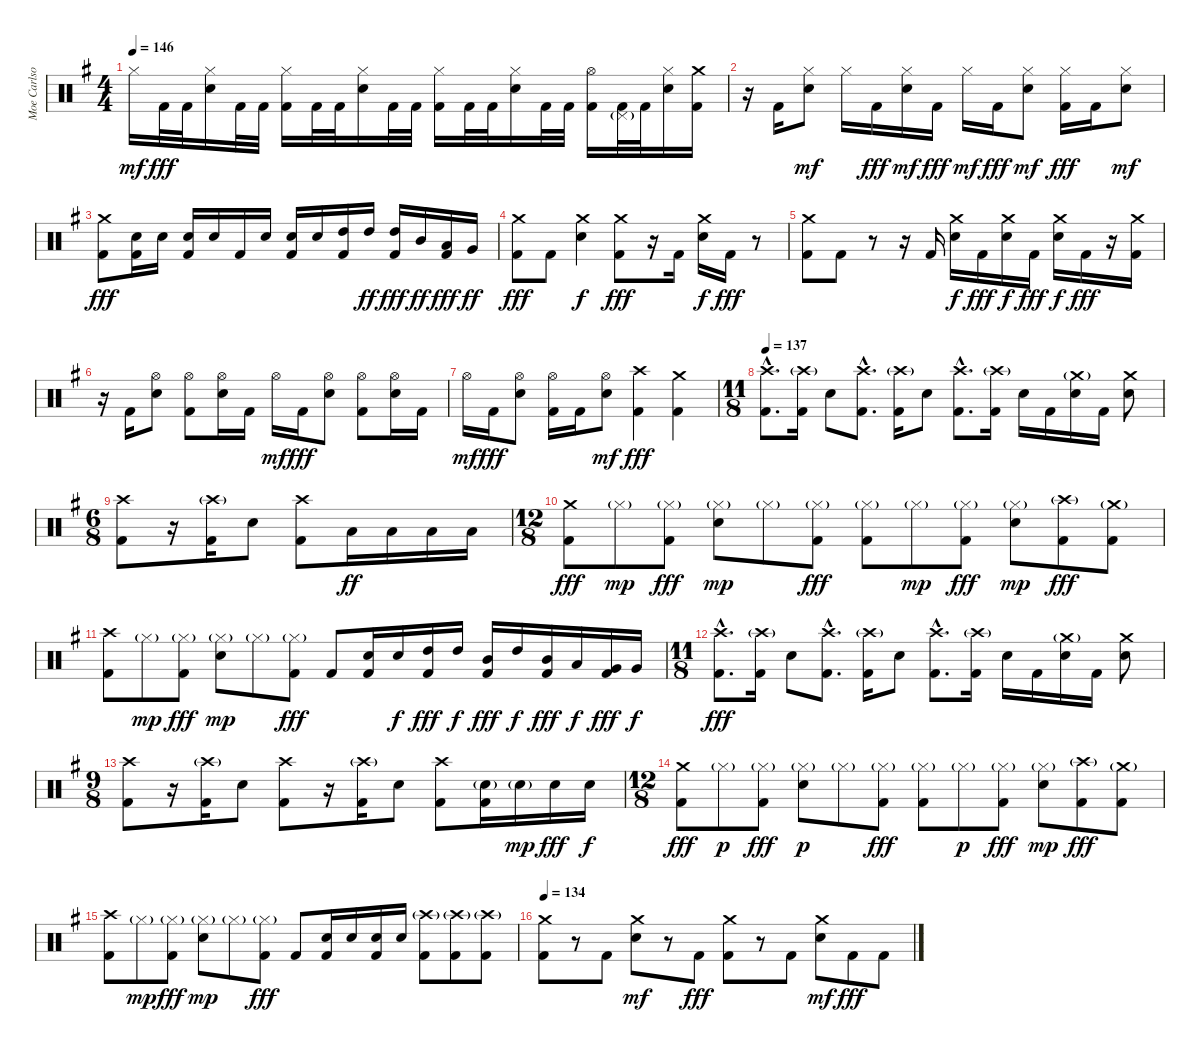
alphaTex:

\track ("Moe Carlson" "Moe Carlso") {instrument percussion}
\staff {score}
\articulation defaults
\ts (4 4)
\tempo 146
\clef neutral
\ks g "Hi-Hat (closed)".16{dy mf} "Kick (hit) 2".32{dy fff} "Kick (hit) 2".32
("Hi-Hat (closed)" "Electric Snare (hit)").16 "Kick (hit) 2".32 "Kick (hit) 2".32 ("Hi-Hat (closed)" "Kick (hit) 2").16 "Kick (hit) 2".32 "Kick (hit) 2".32 ("Hi-Hat (closed)" "Electric Snare (hit)").16 "Kick (hit) 2".32 "Kick (hit) 2".32 ("Hi-Hat (closed)" "Kick (hit) 2").16 "Kick (hit) 2".32 "Kick (hit) 2".32 ("Hi-Hat (closed)" "Electric Snare (hit)").16 "Kick (hit) 2".32 "Kick (hit) 2".32 ("Hi-Hat (open)" "Kick (hit) 2").16 ("Pedal Hi-Hat (hit)"{g} "Kick (hit) 2").32 "Kick (hit) 2".32 ("Hi-Hat (closed)" "Electric Snare (hit)").16 ("Crash medium (hit)" "Kick (hit) 2").16 |
r.16 "Kick (hit) 2".16 ("Hi-Hat (closed)" "Electric Snare (hit)").8{dy mf} "Hi-Hat (closed)".16 "Kick (hit) 2".16{dy fff} ("Hi-Hat (closed)" "Electric Snare (hit)").16{dy mf} "Kick (hit) 2".16{dy fff} "Hi-Hat (closed)".16{dy mf} "Kick (hit) 2".16{dy fff} ("Hi-Hat (closed)" "Electric Snare (hit)").8{dy mf} ("Hi-Hat (closed)" "Kick (hit) 2").16{dy fff} "Kick (hit) 2".16 ("Hi-Hat (closed)" "Electric Snare (hit)").8{dy mf} |
("Crash medium (hit)" "Kick (hit) 2").8{dy fff} ("Electric Snare (hit)" "Kick (hit) 2").16 "Electric Snare (hit)".16 ("Electric Snare (hit)" "Kick (hit) 2").16 "Electric Snare (hit)".16 "Kick (hit) 2".16 "Electric Snare (hit)".16 ("Electric Snare (hit)" "Kick (hit) 2").16 "Electric Snare (hit)".16 ("High Tom (hit)" "Kick (hit) 2").16 "High Tom (hit)".16{dy ff} ("High Tom (hit)" "Kick (hit) 2").16{dy fff} "Mid Tom (hit)".16{dy ff} ("Low Tom (hit)" "Kick (hit) 2").16{dy fff} "Very Low Tom (hit)".16{dy ff} |
("Crash medium (hit)" "Kick (hit) 2").8{dy fff} "Kick (hit) 2".8 ("Crash medium (hit)" "Electric Snare (hit)").4{dy f} ("Crash medium (hit)" "Kick (hit) 2").8{dy fff} r.16 "Kick (hit) 2".16 ("Crash medium (hit)" "Electric Snare (hit)").16{dy f} "Kick (hit) 2".16{dy fff} r.8 |
("Crash medium (hit)" "Kick (hit) 2").8 "Kick (hit) 2".8 r.8 r.16 "Kick (hit) 2".16 ("Crash medium (hit)" "Electric Snare (hit)").16{dy f} "Kick (hit) 2".16{dy fff} ("Crash medium (hit)" "Electric Snare (hit)").16{dy f} "Kick (hit) 2".16{dy fff} ("Crash medium (hit)" "Electric Snare (hit)").16{dy f} "Kick (hit) 2".16{dy fff} r.16 ("Crash medium (hit)" "Kick (hit) 2").16 |
r.16 "Kick (hit) 2".16 ("Hi-Hat (open)" "Electric Snare (hit)").8 ("Hi-Hat (open)" "Kick (hit) 2").8 ("Hi-Hat (open)" "Electric Snare (hit)").16 "Kick (hit) 2".16 "Hi-Hat (open)".16{dy mf} "Kick (hit) 2".16{dy fff} ("Hi-Hat (open)" "Electric Snare (hit)").8 ("Hi-Hat (open)" "Kick (hit) 2").8 ("Hi-Hat (open)" "Electric Snare (hit)").16 "Kick (hit) 2".16 |
"Hi-Hat (open)".16{dy mf} "Kick (hit) 2".16{dy fff} ("Hi-Hat (open)" "Electric Snare (hit)").8 ("Hi-Hat (open)" "Kick (hit) 2").16 "Kick (hit) 2".16 ("Hi-Hat (open)" "Electric Snare (hit)").8{dy mf} ("Crash high (hit)" "Kick (hit) 2").4{dy fff} ("Crash medium (hit)" "Kick (hit) 2").4 |
\ts (11 8)
\tempo 137
("Crash high (hit)"{hac} "Kick (hit) 2"{hac}).8{d} ("Crash high (hit)"{g} "Kick (hit) 2").16 "Electric Snare (hit)".8 ("Crash high (hit)"{hac} "Kick (hit) 2"{hac}).8{d} ("Crash high (hit)"{g} "Kick (hit) 2").16 "Electric Snare (hit)".8 ("Crash high (hit)"{hac} "Kick (hit) 2"{hac}).8{d} ("Crash high (hit)"{g} "Kick (hit) 2").16 "Electric Snare (hit)".16 "Kick (hit) 2".16 ("Crash medium (hit)"{g} "Electric Snare (hit)").16 "Kick (hit) 2".16 ("Crash medium (hit)" "Electric Snare (hit)").8 |
\ts (6 8)
("Crash high (hit)" "Kick (hit) 2").8 r.16 ("Crash high (hit)"{g} "Kick (hit) 2").16 "Electric Snare (hit)".8 ("Crash high (hit)" "Kick (hit) 2").8 "Low Floor Tom (hit)".16{dy ff} "Low Floor Tom (hit)".16 "Low Floor Tom (hit)".16 "Low Floor Tom (hit)".16 |
\ts (12 8)
("Crash medium (hit)" "Kick (hit) 2").8{dy fff} "Hi-Hat (closed)"{g}.8{dy mp} ("Hi-Hat (closed)"{g} "Kick (hit) 2").8{dy fff} ("Hi-Hat (closed)"{g} "Electric Snare (hit)").8{dy mp} "Hi-Hat (closed)"{g}.8 ("Hi-Hat (closed)"{g} "Kick (hit) 2").8{dy fff} ("Hi-Hat (closed)"{g} "Kick (hit) 2").8 "Hi-Hat (closed)"{g}.8{dy mp} ("Hi-Hat (closed)"{g} "Kick (hit) 2").8{dy fff} ("Hi-Hat (closed)"{g} "Electric Snare (hit)").8{dy mp} ("Crash high (hit)"{g} "Kick (hit) 2").8{dy fff} ("Crash medium (hit)"{g} "Kick (hit) 2").8 |
("Crash high (hit)" "Kick (hit) 2").8 "Hi-Hat (closed)"{g}.8{dy mp} ("Hi-Hat (closed)"{g} "Kick (hit) 2").8{dy fff} ("Hi-Hat (closed)"{g} "Electric Snare (hit)").8{dy mp} "Hi-Hat (closed)"{g}.8 ("Hi-Hat (closed)"{g} "Kick (hit) 2").8{dy fff} "Kick (hit) 2".8 ("Electric Snare (hit)" "Kick (hit) 2").16 "Electric Snare (hit)".16{dy f} ("High Tom (hit)" "Kick (hit) 2").16{dy fff} "High Tom (hit)".16{dy f} ("Mid Tom (hit)" "Kick (hit) 2").16{dy fff} "High Tom (hit)".16{dy f} ("Mid Tom (hit)" "Kick (hit) 2").16{dy fff} "Low Tom (hit)".16{dy f} ("Very Low Tom (hit)" "Kick (hit) 2").16{dy fff} "Very Low Tom (hit)".16{dy f} |
\ts (11 8)
("Crash high (hit)"{hac} "Kick (hit) 2"{hac}).8{d dy fff} ("Crash high (hit)"{g} "Kick (hit) 2").16 "Electric Snare (hit)".8 ("Crash high (hit)"{hac} "Kick (hit) 2"{hac}).8{d} ("Crash high (hit)"{g} "Kick (hit) 2").16 "Electric Snare (hit)".8 ("Crash high (hit)"{hac} "Kick (hit) 2"{hac}).8{d} ("Crash high (hit)"{g} "Kick (hit) 2").16 "Electric Snare (hit)".16 "Kick (hit) 2".16 ("Crash medium (hit)"{g} "Electric Snare (hit)").16 "Kick (hit) 2".16 ("Crash medium (hit)" "Electric Snare (hit)").8 |
\ts (9 8)
("Crash high (hit)" "Kick (hit) 2").8 r.16 ("Crash high (hit)"{g} "Kick (hit) 2").16 "Electric Snare (hit)".8 ("Crash high (hit)" "Kick (hit) 2").8 r.16 ("Crash high (hit)"{g} "Kick (hit) 2").16 "Electric Snare (hit)".8 ("Crash high (hit)" "Kick (hit) 2").8 ("Electric Snare (hit)"{g} "Kick (hit) 2").16 "Electric Snare (hit)"{g}.16{dy mp} "Electric Snare (hit)".16{dy fff} "Electric Snare (hit)".16{dy f} |
\ts (12 8)
("Crash medium (hit)" "Kick (hit) 2").8{dy fff} "Hi-Hat (closed)"{g}.8{dy p} ("Hi-Hat (closed)"{g} "Kick (hit) 2").8{dy fff} ("Hi-Hat (closed)"{g} "Electric Snare (hit)").8{dy p} "Hi-Hat (closed)"{g}.8 ("Hi-Hat (closed)"{g} "Kick (hit) 2").8{dy fff} ("Hi-Hat (closed)"{g} "Kick (hit) 2").8 "Hi-Hat (closed)"{g}.8{dy p} ("Hi-Hat (closed)"{g} "Kick (hit) 2").8{dy fff} ("Hi-Hat (closed)"{g} "Electric Snare (hit)").8{dy mp} ("Crash high (hit)"{g} "Kick (hit) 2").8{dy fff} ("Crash medium (hit)"{g} "Kick (hit) 2").8 |
("Crash high (hit)" "Kick (hit) 2").8 "Hi-Hat (closed)"{g}.8{dy mp} ("Hi-Hat (closed)"{g} "Kick (hit) 2").8{dy fff} ("Hi-Hat (closed)"{g} "Electric Snare (hit)").8{dy mp} "Hi-Hat (closed)"{g}.8 ("Hi-Hat (closed)"{g} "Kick (hit) 2").8{dy fff} "Kick (hit) 2".8 ("Electric Snare (hit)" "Kick (hit) 2").16 "Electric Snare (hit)".16 ("Electric Snare (hit)" "Kick (hit) 2").16 "Electric Snare (hit)".16 ("Crash high (hit)"{g} "Kick (hit) 2").8 ("Crash high (hit)"{g} "Kick (hit) 2").8 ("Crash high (hit)"{g} "Kick (hit) 2").8 |
\tempo 134
("Crash medium (hit)" "Kick (hit) 2").8 r.8 "Kick (hit) 2".8 ("Crash medium (hit)" "Electric Snare (hit)").8{dy mf} r.8 "Kick (hit) 2".8{dy fff} ("Crash medium (hit)" "Kick (hit) 2").8 r.8 "Kick (hit) 2".8 ("Crash medium (hit)" "Electric Snare (hit)").8{dy mf} "Kick (hit) 2".8{dy fff} "Kick (hit) 2".8
